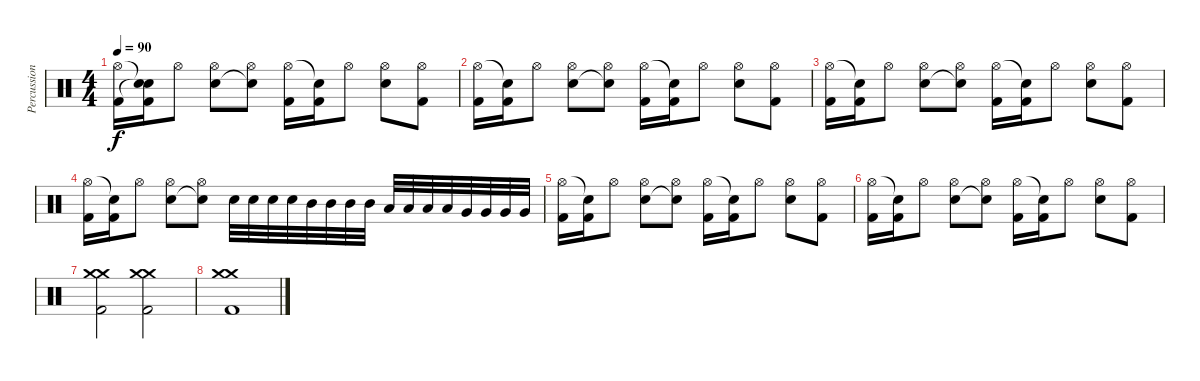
\track ("Percussion" "Percussion") {instrument percussion}
\staff {score}
\articulation defaults
\ts (4 4)
\tempo 90
\clef neutral
\ks c
("Hi-Hat (open)" "Kick (hit) 2").16{dy f} ("Snare (hit)"{t} "Snare (hit)"{t} "Kick (hit) 2").16 "Hi-Hat (open)".8 ("Hi-Hat (open)" "Snare (hit) 2").8 ("Hi-Hat (open)" "Snare (hit) 2"{t}).8 ("Hi-Hat (open)" "Kick (hit) 2").16 ("Snare (hit)"{t} "Kick (hit) 2").16 "Hi-Hat (open)".8 ("Hi-Hat (open)" "Snare (hit) 2").8 ("Hi-Hat (open)" "Kick (hit) 2").8 |
("Hi-Hat (open)" "Kick (hit) 2").16 ("Snare (hit)"{t} "Kick (hit) 2").16 "Hi-Hat (open)".8 ("Hi-Hat (open)" "Snare (hit) 2").8 ("Hi-Hat (open)" "Snare (hit) 2"{t}).8 ("Hi-Hat (open)" "Kick (hit) 2").16 ("Snare (hit)"{t} "Kick (hit) 2").16 "Hi-Hat (open)".8 ("Hi-Hat (open)" "Snare (hit) 2").8 ("Hi-Hat (open)" "Kick (hit) 2").8 |
("Hi-Hat (open)" "Kick (hit) 2").16 ("Snare (hit)"{t} "Kick (hit) 2").16 "Hi-Hat (open)".8 ("Hi-Hat (open)" "Snare (hit) 2").8 ("Hi-Hat (open)" "Snare (hit) 2"{t}).8 ("Hi-Hat (open)" "Kick (hit) 2").16 ("Snare (hit)"{t} "Kick (hit) 2").16 "Hi-Hat (open)".8 ("Hi-Hat (open)" "Snare (hit) 2").8 ("Hi-Hat (open)" "Kick (hit) 2").8 |
("Hi-Hat (open)" "Kick (hit) 2").16 ("Snare (hit)"{t} "Kick (hit) 2").16 "Hi-Hat (open)".8 ("Hi-Hat (open)" "Snare (hit) 2").8 ("Hi-Hat (open)" "Snare (hit) 2"{t}).8 "Snare (hit) 2".32 "Snare (hit) 2".32 "Snare (hit) 2".32 "Snare (hit) 2".32 "Mid Tom (hit)".32 "Mid Tom (hit)".32 "Mid Tom (hit)".32 "Mid Tom (hit)".32 "Low Tom (hit)".32 "Low Tom (hit)".32 "Low Tom (hit)".32 "Low Tom (hit)".32 "Very Low Tom (hit)".32 "Very Low Tom (hit)".32 "Very Low Tom (hit)".32 "Very Low Tom (hit)".32 |
("Hi-Hat (open)" "Kick (hit) 2").16 ("Snare (hit)"{t} "Kick (hit) 2").16 "Hi-Hat (open)".8 ("Hi-Hat (open)" "Snare (hit) 2").8 ("Hi-Hat (open)" "Snare (hit) 2"{t}).8 ("Hi-Hat (open)" "Kick (hit) 2").16 ("Snare (hit)"{t} "Kick (hit) 2").16 "Hi-Hat (open)".8 ("Hi-Hat (open)" "Snare (hit) 2").8 ("Hi-Hat (open)" "Kick (hit) 2").8 |
("Hi-Hat (open)" "Kick (hit) 2").16 ("Snare (hit)"{t} "Kick (hit) 2").16 "Hi-Hat (open)".8 ("Hi-Hat (open)" "Snare (hit) 2").8 ("Hi-Hat (open)" "Snare (hit) 2"{t}).8 ("Hi-Hat (open)" "Kick (hit) 2").16 ("Snare (hit)"{t} "Kick (hit) 2").16 "Hi-Hat (open)".8 ("Hi-Hat (open)" "Snare (hit) 2").8 ("Hi-Hat (open)" "Kick (hit) 2").8 |
("Crash medium (hit)" "Crash medium (hit)" "Kick (hit) 2").2 ("Crash medium (hit)" "Crash medium (hit)" "Kick (hit) 2").2 |
("Crash medium (hit)" "Crash medium (hit)" "Kick (hit) 2").1
